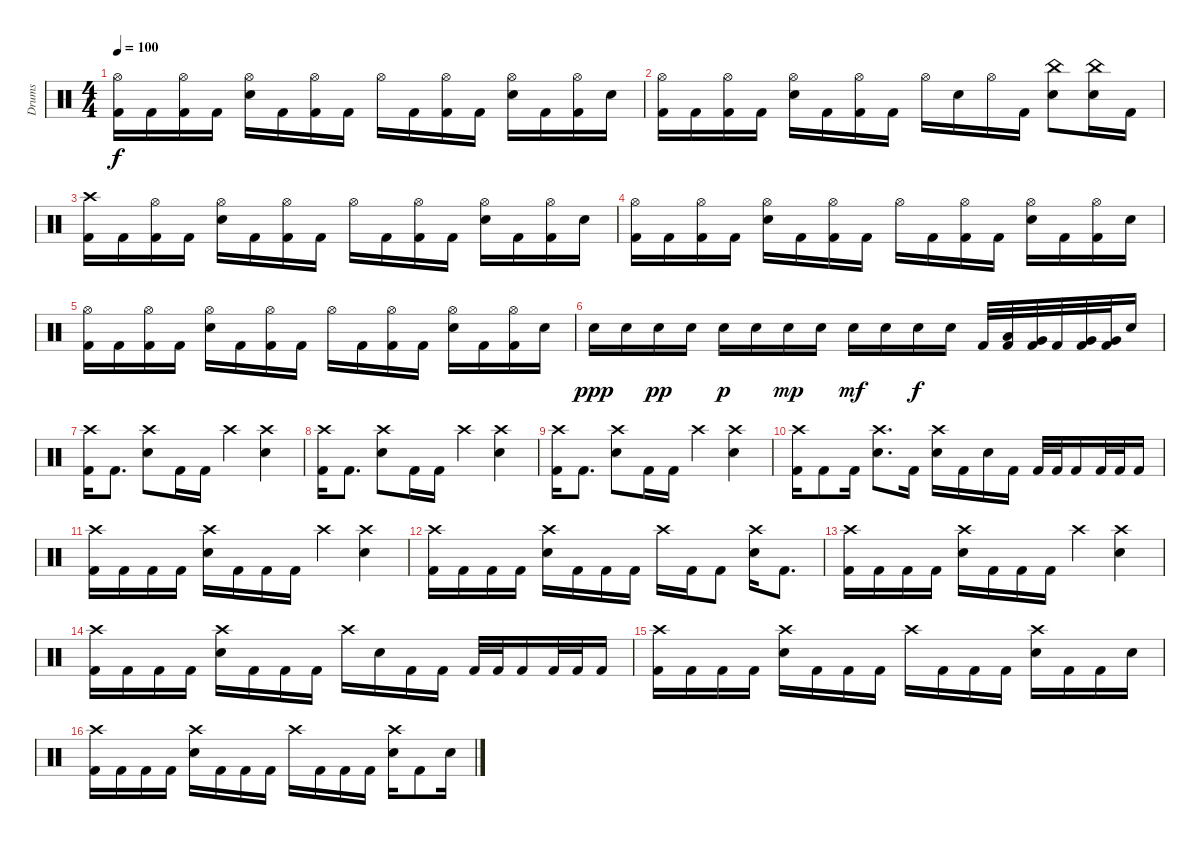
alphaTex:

\track ("Drums" "Drums") {instrument percussion}
\staff {score}
\articulation defaults
\ts (4 4)
\tempo 100
\clef neutral
\ks c
("Hi-Hat (open)" "Kick (hit) 2").16{dy f} "Kick (hit) 2".16 ("Hi-Hat (open)" "Kick (hit) 2").16 "Kick (hit) 2".16 ("Hi-Hat (open)" "Electric Snare (hit)").16 "Kick (hit) 2".16 ("Hi-Hat (open)" "Kick (hit) 2").16 "Kick (hit) 2".16 "Hi-Hat (open)".16 "Kick (hit) 2".16 ("Hi-Hat (open)" "Kick (hit) 2").16 "Kick (hit) 2".16 ("Hi-Hat (open)" "Electric Snare (hit)").16 "Kick (hit) 2".16 ("Hi-Hat (open)" "Kick (hit) 2").16 "Electric Snare (hit)".16 |
("Hi-Hat (open)" "Kick (hit) 2").16 "Kick (hit) 2".16 ("Hi-Hat (open)" "Kick (hit) 2").16 "Kick (hit) 2".16 ("Hi-Hat (open)" "Electric Snare (hit)").16 "Kick (hit) 2".16 ("Hi-Hat (open)" "Kick (hit) 2").16 "Kick (hit) 2".16 "Hi-Hat (open)".16 "Electric Snare (hit)".16 "Hi-Hat (open)".16 "Kick (hit) 2".16 ("China (hit)" "Electric Snare (hit)").8 ("China (hit)" "Electric Snare (hit)").16 "Kick (hit) 2".16 |
("Crash high (hit)" "Kick (hit) 2").16 "Kick (hit) 2".16 ("Hi-Hat (open)" "Kick (hit) 2").16 "Kick (hit) 2".16 ("Hi-Hat (open)" "Electric Snare (hit)").16 "Kick (hit) 2".16 ("Hi-Hat (open)" "Kick (hit) 2").16 "Kick (hit) 2".16 "Hi-Hat (open)".16 "Kick (hit) 2".16 ("Hi-Hat (open)" "Kick (hit) 2").16 "Kick (hit) 2".16 ("Hi-Hat (open)" "Electric Snare (hit)").16 "Kick (hit) 2".16 ("Hi-Hat (open)" "Kick (hit) 2").16 "Electric Snare (hit)".16 |
("Hi-Hat (open)" "Kick (hit) 2").16 "Kick (hit) 2".16 ("Hi-Hat (open)" "Kick (hit) 2").16 "Kick (hit) 2".16 ("Hi-Hat (open)" "Electric Snare (hit)").16 "Kick (hit) 2".16 ("Hi-Hat (open)" "Kick (hit) 2").16 "Kick (hit) 2".16 "Hi-Hat (open)".16 "Kick (hit) 2".16 ("Hi-Hat (open)" "Kick (hit) 2").16 "Kick (hit) 2".16 ("Hi-Hat (open)" "Electric Snare (hit)").16 "Kick (hit) 2".16 ("Hi-Hat (open)" "Kick (hit) 2").16 "Electric Snare (hit)".16 |
("Hi-Hat (open)" "Kick (hit) 2").16 "Kick (hit) 2".16 ("Hi-Hat (open)" "Kick (hit) 2").16 "Kick (hit) 2".16 ("Hi-Hat (open)" "Electric Snare (hit)").16 "Kick (hit) 2".16 ("Hi-Hat (open)" "Kick (hit) 2").16 "Kick (hit) 2".16 "Hi-Hat (open)".16 "Kick (hit) 2".16 ("Hi-Hat (open)" "Kick (hit) 2").16 "Kick (hit) 2".16 ("Hi-Hat (open)" "Electric Snare (hit)").16 "Kick (hit) 2".16 ("Hi-Hat (open)" "Kick (hit) 2").16 "Electric Snare (hit)".16 |
"Electric Snare (hit)".16{dy ppp} "Electric Snare (hit)".16 "Electric Snare (hit)".16{dy pp} "Electric Snare (hit)".16 "Electric Snare (hit)".16{dy p} "Electric Snare (hit)".16 "Electric Snare (hit)".16{dy mp} "Electric Snare (hit)".16 "Electric Snare (hit)".16{dy mf} "Electric Snare (hit)".16 "Electric Snare (hit)".16{dy f} "Electric Snare (hit)".16 "Kick (hit) 2".32 ("Low Tom (hit)" "Kick (hit) 2").32 ("Very Low Tom (hit)" "Kick (hit) 2").32 "Kick (hit) 2".32 ("Very Low Tom (hit)" "Kick (hit) 2").32 ("Very Low Tom (hit)" "Kick (hit) 2").32 "Electric Snare (hit)".16 |
("Crash high (hit)" "Kick (hit) 2").16 "Kick (hit) 2".8{d} ("Crash high (hit)" "Electric Snare (hit)").8 "Kick (hit) 2".16 "Kick (hit) 2".16 "Crash high (hit)".4 ("Crash high (hit)" "Electric Snare (hit)").4 |
("Crash high (hit)" "Kick (hit) 2").16 "Kick (hit) 2".8{d} ("Crash high (hit)" "Electric Snare (hit)").8 "Kick (hit) 2".16 "Kick (hit) 2".16 "Crash high (hit)".4 ("Crash high (hit)" "Electric Snare (hit)").4 |
("Crash high (hit)" "Kick (hit) 2").16 "Kick (hit) 2".8{d} ("Crash high (hit)" "Electric Snare (hit)").8 "Kick (hit) 2".16 "Kick (hit) 2".16 "Crash high (hit)".4 ("Crash high (hit)" "Electric Snare (hit)").4 |
("Crash high (hit)" "Kick (hit) 2").16 "Kick (hit) 2".8 "Kick (hit) 2".16 ("Crash high (hit)" "Electric Snare (hit)").8{d} "Kick (hit) 2".16 ("Crash high (hit)" "Electric Snare (hit)").16 "Kick (hit) 2".16 "Electric Snare (hit)".16 "Kick (hit) 2".16 "Kick (hit) 2".32 "Kick (hit) 2".32 "Kick (hit) 2".16 "Kick (hit) 2".32 "Kick (hit) 2".32 "Kick (hit) 2".16 |
("Crash high (hit)" "Kick (hit) 2").16 "Kick (hit) 2".16 "Kick (hit) 2".16 "Kick (hit) 2".16 ("Crash high (hit)" "Electric Snare (hit)").16 "Kick (hit) 2".16 "Kick (hit) 2".16 "Kick (hit) 2".16 "Crash high (hit)".4 ("Crash high (hit)" "Electric Snare (hit)").4 |
("Crash high (hit)" "Kick (hit) 2").16 "Kick (hit) 2".16 "Kick (hit) 2".16 "Kick (hit) 2".16 ("Crash high (hit)" "Electric Snare (hit)").16 "Kick (hit) 2".16 "Kick (hit) 2".16 "Kick (hit) 2".16 "Crash high (hit)".16 "Kick (hit) 2".16 "Kick (hit) 2".8 ("Crash high (hit)" "Electric Snare (hit)").16 "Kick (hit) 2".8{d} |
("Crash high (hit)" "Kick (hit) 2").16 "Kick (hit) 2".16 "Kick (hit) 2".16 "Kick (hit) 2".16 ("Crash high (hit)" "Electric Snare (hit)").16 "Kick (hit) 2".16 "Kick (hit) 2".16 "Kick (hit) 2".16 "Crash high (hit)".4 ("Crash high (hit)" "Electric Snare (hit)").4 |
("Crash high (hit)" "Kick (hit) 2").16 "Kick (hit) 2".16 "Kick (hit) 2".16 "Kick (hit) 2".16 ("Crash high (hit)" "Electric Snare (hit)").16 "Kick (hit) 2".16 "Kick (hit) 2".16 "Kick (hit) 2".16 "Crash high (hit)".16 "Electric Snare (hit)".16 "Kick (hit) 2".16 "Kick (hit) 2".16 "Kick (hit) 2".32 "Kick (hit) 2".32 "Kick (hit) 2".16 "Kick (hit) 2".32 "Kick (hit) 2".32 "Kick (hit) 2".16 |
("Crash high (hit)" "Kick (hit) 2").16 "Kick (hit) 2".16 "Kick (hit) 2".16 "Kick (hit) 2".16 ("Crash high (hit)" "Electric Snare (hit)").16 "Kick (hit) 2".16 "Kick (hit) 2".16 "Kick (hit) 2".16 "Crash high (hit)".16 "Kick (hit) 2".16 "Kick (hit) 2".16 "Kick (hit) 2".16 ("Crash high (hit)" "Electric Snare (hit)").16 "Kick (hit) 2".16 "Kick (hit) 2".16 "Electric Snare (hit)".16 |
("Crash high (hit)" "Kick (hit) 2").16 "Kick (hit) 2".16 "Kick (hit) 2".16 "Kick (hit) 2".16 ("Crash high (hit)" "Electric Snare (hit)").16 "Kick (hit) 2".16 "Kick (hit) 2".16 "Kick (hit) 2".16 "Crash high (hit)".16 "Kick (hit) 2".16 "Kick (hit) 2".16 "Kick (hit) 2".16 ("Crash high (hit)" "Electric Snare (hit)").16 "Kick (hit) 2".8 "Electric Snare (hit)".16
